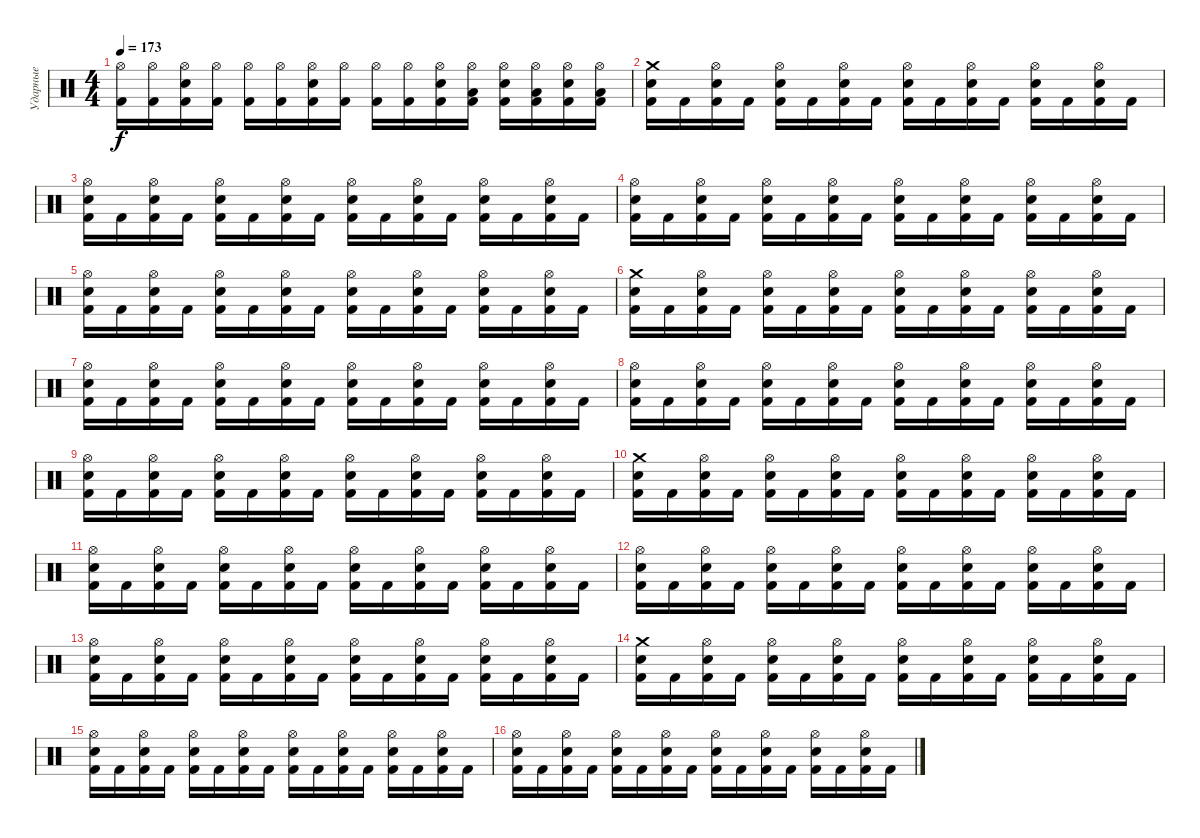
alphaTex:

\track ("Ударные" "Ударные") {instrument percussion}
\staff {score}
\articulation defaults
\ts (4 4)
\tempo 173
\clef neutral
\ks c
("Hi-Hat (open)" "Kick (hit) 2").16{dy f} ("Hi-Hat (open)" "Kick (hit) 2").16 ("Hi-Hat (open)" "Electric Snare (hit)" "Kick (hit) 2").16 ("Hi-Hat (open)" "Kick (hit) 2").16 ("Hi-Hat (open)" "Kick (hit) 2").16 ("Hi-Hat (open)" "Kick (hit) 2").16 ("Hi-Hat (open)" "Electric Snare (hit)" "Kick (hit) 2").16 ("Hi-Hat (open)" "Kick (hit) 2").16 ("Hi-Hat (open)" "Kick (hit) 2").16 ("Hi-Hat (open)" "Kick (hit) 2").16 ("Hi-Hat (open)" "Electric Snare (hit)" "Kick (hit) 2").16 ("Hi-Hat (open)" "Low Tom (hit)" "Kick (hit) 2").16 ("Hi-Hat (open)" "Electric Snare (hit)" "Kick (hit) 2").16 ("Hi-Hat (open)" "Low Tom (hit)" "Kick (hit) 2").16 ("Hi-Hat (open)" "Electric Snare (hit)" "Kick (hit) 2").16 ("Hi-Hat (open)" "Low Tom (hit)" "Kick (hit) 2").16 |
("Crash medium (hit)" "Electric Snare (hit)" "Kick (hit) 2").16 "Kick (hit) 2".16 ("Hi-Hat (open)" "Electric Snare (hit)" "Kick (hit) 2").16 "Kick (hit) 2".16 ("Hi-Hat (open)" "Electric Snare (hit)" "Kick (hit) 2").16 "Kick (hit) 2".16 ("Hi-Hat (open)" "Electric Snare (hit)" "Kick (hit) 2").16 "Kick (hit) 2".16 ("Hi-Hat (open)" "Electric Snare (hit)" "Kick (hit) 2").16 "Kick (hit) 2".16 ("Hi-Hat (open)" "Electric Snare (hit)" "Kick (hit) 2").16 "Kick (hit) 2".16 ("Hi-Hat (open)" "Electric Snare (hit)" "Kick (hit) 2").16 "Kick (hit) 2".16 ("Hi-Hat (open)" "Electric Snare (hit)" "Kick (hit) 2").16 "Kick (hit) 2".16 |
("Hi-Hat (open)" "Electric Snare (hit)" "Kick (hit) 2").16 "Kick (hit) 2".16 ("Hi-Hat (open)" "Electric Snare (hit)" "Kick (hit) 2").16 "Kick (hit) 2".16 ("Hi-Hat (open)" "Electric Snare (hit)" "Kick (hit) 2").16 "Kick (hit) 2".16 ("Hi-Hat (open)" "Electric Snare (hit)" "Kick (hit) 2").16 "Kick (hit) 2".16 ("Hi-Hat (open)" "Electric Snare (hit)" "Kick (hit) 2").16 "Kick (hit) 2".16 ("Hi-Hat (open)" "Electric Snare (hit)" "Kick (hit) 2").16 "Kick (hit) 2".16 ("Hi-Hat (open)" "Electric Snare (hit)" "Kick (hit) 2").16 "Kick (hit) 2".16 ("Hi-Hat (open)" "Electric Snare (hit)" "Kick (hit) 2").16 "Kick (hit) 2".16 |
("Hi-Hat (open)" "Electric Snare (hit)" "Kick (hit) 2").16 "Kick (hit) 2".16 ("Hi-Hat (open)" "Electric Snare (hit)" "Kick (hit) 2").16 "Kick (hit) 2".16 ("Hi-Hat (open)" "Electric Snare (hit)" "Kick (hit) 2").16 "Kick (hit) 2".16 ("Hi-Hat (open)" "Electric Snare (hit)" "Kick (hit) 2").16 "Kick (hit) 2".16 ("Hi-Hat (open)" "Electric Snare (hit)" "Kick (hit) 2").16 "Kick (hit) 2".16 ("Hi-Hat (open)" "Electric Snare (hit)" "Kick (hit) 2").16 "Kick (hit) 2".16 ("Hi-Hat (open)" "Electric Snare (hit)" "Kick (hit) 2").16 "Kick (hit) 2".16 ("Hi-Hat (open)" "Electric Snare (hit)" "Kick (hit) 2").16 "Kick (hit) 2".16 |
("Hi-Hat (open)" "Electric Snare (hit)" "Kick (hit) 2").16 "Kick (hit) 2".16 ("Hi-Hat (open)" "Electric Snare (hit)" "Kick (hit) 2").16 "Kick (hit) 2".16 ("Hi-Hat (open)" "Electric Snare (hit)" "Kick (hit) 2").16 "Kick (hit) 2".16 ("Hi-Hat (open)" "Electric Snare (hit)" "Kick (hit) 2").16 "Kick (hit) 2".16 ("Hi-Hat (open)" "Electric Snare (hit)" "Kick (hit) 2").16 "Kick (hit) 2".16 ("Hi-Hat (open)" "Electric Snare (hit)" "Kick (hit) 2").16 "Kick (hit) 2".16 ("Hi-Hat (open)" "Electric Snare (hit)" "Kick (hit) 2").16 "Kick (hit) 2".16 ("Hi-Hat (open)" "Electric Snare (hit)" "Kick (hit) 2").16 "Kick (hit) 2".16 |
("Crash medium (hit)" "Electric Snare (hit)" "Kick (hit) 2").16 "Kick (hit) 2".16 ("Hi-Hat (open)" "Electric Snare (hit)" "Kick (hit) 2").16 "Kick (hit) 2".16 ("Hi-Hat (open)" "Electric Snare (hit)" "Kick (hit) 2").16 "Kick (hit) 2".16 ("Hi-Hat (open)" "Electric Snare (hit)" "Kick (hit) 2").16 "Kick (hit) 2".16 ("Hi-Hat (open)" "Electric Snare (hit)" "Kick (hit) 2").16 "Kick (hit) 2".16 ("Hi-Hat (open)" "Electric Snare (hit)" "Kick (hit) 2").16 "Kick (hit) 2".16 ("Hi-Hat (open)" "Electric Snare (hit)" "Kick (hit) 2").16 "Kick (hit) 2".16 ("Hi-Hat (open)" "Electric Snare (hit)" "Kick (hit) 2").16 "Kick (hit) 2".16 |
("Hi-Hat (open)" "Electric Snare (hit)" "Kick (hit) 2").16 "Kick (hit) 2".16 ("Hi-Hat (open)" "Electric Snare (hit)" "Kick (hit) 2").16 "Kick (hit) 2".16 ("Hi-Hat (open)" "Electric Snare (hit)" "Kick (hit) 2").16 "Kick (hit) 2".16 ("Hi-Hat (open)" "Electric Snare (hit)" "Kick (hit) 2").16 "Kick (hit) 2".16 ("Hi-Hat (open)" "Electric Snare (hit)" "Kick (hit) 2").16 "Kick (hit) 2".16 ("Hi-Hat (open)" "Electric Snare (hit)" "Kick (hit) 2").16 "Kick (hit) 2".16 ("Hi-Hat (open)" "Electric Snare (hit)" "Kick (hit) 2").16 "Kick (hit) 2".16 ("Hi-Hat (open)" "Electric Snare (hit)" "Kick (hit) 2").16 "Kick (hit) 2".16 |
("Hi-Hat (open)" "Electric Snare (hit)" "Kick (hit) 2").16 "Kick (hit) 2".16 ("Hi-Hat (open)" "Electric Snare (hit)" "Kick (hit) 2").16 "Kick (hit) 2".16 ("Hi-Hat (open)" "Electric Snare (hit)" "Kick (hit) 2").16 "Kick (hit) 2".16 ("Hi-Hat (open)" "Electric Snare (hit)" "Kick (hit) 2").16 "Kick (hit) 2".16 ("Hi-Hat (open)" "Electric Snare (hit)" "Kick (hit) 2").16 "Kick (hit) 2".16 ("Hi-Hat (open)" "Electric Snare (hit)" "Kick (hit) 2").16 "Kick (hit) 2".16 ("Hi-Hat (open)" "Electric Snare (hit)" "Kick (hit) 2").16 "Kick (hit) 2".16 ("Hi-Hat (open)" "Electric Snare (hit)" "Kick (hit) 2").16 "Kick (hit) 2".16 |
("Hi-Hat (open)" "Electric Snare (hit)" "Kick (hit) 2").16 "Kick (hit) 2".16 ("Hi-Hat (open)" "Electric Snare (hit)" "Kick (hit) 2").16 "Kick (hit) 2".16 ("Hi-Hat (open)" "Electric Snare (hit)" "Kick (hit) 2").16 "Kick (hit) 2".16 ("Hi-Hat (open)" "Electric Snare (hit)" "Kick (hit) 2").16 "Kick (hit) 2".16 ("Hi-Hat (open)" "Electric Snare (hit)" "Kick (hit) 2").16 "Kick (hit) 2".16 ("Hi-Hat (open)" "Electric Snare (hit)" "Kick (hit) 2").16 "Kick (hit) 2".16 ("Hi-Hat (open)" "Electric Snare (hit)" "Kick (hit) 2").16 "Kick (hit) 2".16 ("Hi-Hat (open)" "Electric Snare (hit)" "Kick (hit) 2").16 "Kick (hit) 2".16 |
("Crash medium (hit)" "Electric Snare (hit)" "Kick (hit) 2").16 "Kick (hit) 2".16 ("Hi-Hat (open)" "Electric Snare (hit)" "Kick (hit) 2").16 "Kick (hit) 2".16 ("Hi-Hat (open)" "Electric Snare (hit)" "Kick (hit) 2").16 "Kick (hit) 2".16 ("Hi-Hat (open)" "Electric Snare (hit)" "Kick (hit) 2").16 "Kick (hit) 2".16 ("Hi-Hat (open)" "Electric Snare (hit)" "Kick (hit) 2").16 "Kick (hit) 2".16 ("Hi-Hat (open)" "Electric Snare (hit)" "Kick (hit) 2").16 "Kick (hit) 2".16 ("Hi-Hat (open)" "Electric Snare (hit)" "Kick (hit) 2").16 "Kick (hit) 2".16 ("Hi-Hat (open)" "Electric Snare (hit)" "Kick (hit) 2").16 "Kick (hit) 2".16 |
("Hi-Hat (open)" "Electric Snare (hit)" "Kick (hit) 2").16 "Kick (hit) 2".16 ("Hi-Hat (open)" "Electric Snare (hit)" "Kick (hit) 2").16 "Kick (hit) 2".16 ("Hi-Hat (open)" "Electric Snare (hit)" "Kick (hit) 2").16 "Kick (hit) 2".16 ("Hi-Hat (open)" "Electric Snare (hit)" "Kick (hit) 2").16 "Kick (hit) 2".16 ("Hi-Hat (open)" "Electric Snare (hit)" "Kick (hit) 2").16 "Kick (hit) 2".16 ("Hi-Hat (open)" "Electric Snare (hit)" "Kick (hit) 2").16 "Kick (hit) 2".16 ("Hi-Hat (open)" "Electric Snare (hit)" "Kick (hit) 2").16 "Kick (hit) 2".16 ("Hi-Hat (open)" "Electric Snare (hit)" "Kick (hit) 2").16 "Kick (hit) 2".16 |
("Hi-Hat (open)" "Electric Snare (hit)" "Kick (hit) 2").16 "Kick (hit) 2".16 ("Hi-Hat (open)" "Electric Snare (hit)" "Kick (hit) 2").16 "Kick (hit) 2".16 ("Hi-Hat (open)" "Electric Snare (hit)" "Kick (hit) 2").16 "Kick (hit) 2".16 ("Hi-Hat (open)" "Electric Snare (hit)" "Kick (hit) 2").16 "Kick (hit) 2".16 ("Hi-Hat (open)" "Electric Snare (hit)" "Kick (hit) 2").16 "Kick (hit) 2".16 ("Hi-Hat (open)" "Electric Snare (hit)" "Kick (hit) 2").16 "Kick (hit) 2".16 ("Hi-Hat (open)" "Electric Snare (hit)" "Kick (hit) 2").16 "Kick (hit) 2".16 ("Hi-Hat (open)" "Electric Snare (hit)" "Kick (hit) 2").16 "Kick (hit) 2".16 |
("Hi-Hat (open)" "Electric Snare (hit)" "Kick (hit) 2").16 "Kick (hit) 2".16 ("Hi-Hat (open)" "Electric Snare (hit)" "Kick (hit) 2").16 "Kick (hit) 2".16 ("Hi-Hat (open)" "Electric Snare (hit)" "Kick (hit) 2").16 "Kick (hit) 2".16 ("Hi-Hat (open)" "Electric Snare (hit)" "Kick (hit) 2").16 "Kick (hit) 2".16 ("Hi-Hat (open)" "Electric Snare (hit)" "Kick (hit) 2").16 "Kick (hit) 2".16 ("Hi-Hat (open)" "Electric Snare (hit)" "Kick (hit) 2").16 "Kick (hit) 2".16 ("Hi-Hat (open)" "Electric Snare (hit)" "Kick (hit) 2").16 "Kick (hit) 2".16 ("Hi-Hat (open)" "Electric Snare (hit)" "Kick (hit) 2").16 "Kick (hit) 2".16 |
("Crash medium (hit)" "Electric Snare (hit)" "Kick (hit) 2").16 "Kick (hit) 2".16 ("Hi-Hat (open)" "Electric Snare (hit)" "Kick (hit) 2").16 "Kick (hit) 2".16 ("Hi-Hat (open)" "Electric Snare (hit)" "Kick (hit) 2").16 "Kick (hit) 2".16 ("Hi-Hat (open)" "Electric Snare (hit)" "Kick (hit) 2").16 "Kick (hit) 2".16 ("Hi-Hat (open)" "Electric Snare (hit)" "Kick (hit) 2").16 "Kick (hit) 2".16 ("Hi-Hat (open)" "Electric Snare (hit)" "Kick (hit) 2").16 "Kick (hit) 2".16 ("Hi-Hat (open)" "Electric Snare (hit)" "Kick (hit) 2").16 "Kick (hit) 2".16 ("Hi-Hat (open)" "Electric Snare (hit)" "Kick (hit) 2").16 "Kick (hit) 2".16 |
("Hi-Hat (open)" "Electric Snare (hit)" "Kick (hit) 2").16 "Kick (hit) 2".16 ("Hi-Hat (open)" "Electric Snare (hit)" "Kick (hit) 2").16 "Kick (hit) 2".16 ("Hi-Hat (open)" "Electric Snare (hit)" "Kick (hit) 2").16 "Kick (hit) 2".16 ("Hi-Hat (open)" "Electric Snare (hit)" "Kick (hit) 2").16 "Kick (hit) 2".16 ("Hi-Hat (open)" "Electric Snare (hit)" "Kick (hit) 2").16 "Kick (hit) 2".16 ("Hi-Hat (open)" "Electric Snare (hit)" "Kick (hit) 2").16 "Kick (hit) 2".16 ("Hi-Hat (open)" "Electric Snare (hit)" "Kick (hit) 2").16 "Kick (hit) 2".16 ("Hi-Hat (open)" "Electric Snare (hit)" "Kick (hit) 2").16 "Kick (hit) 2".16 |
("Hi-Hat (open)" "Electric Snare (hit)" "Kick (hit) 2").16 "Kick (hit) 2".16 ("Hi-Hat (open)" "Electric Snare (hit)" "Kick (hit) 2").16 "Kick (hit) 2".16 ("Hi-Hat (open)" "Electric Snare (hit)" "Kick (hit) 2").16 "Kick (hit) 2".16 ("Hi-Hat (open)" "Electric Snare (hit)" "Kick (hit) 2").16 "Kick (hit) 2".16 ("Hi-Hat (open)" "Electric Snare (hit)" "Kick (hit) 2").16 "Kick (hit) 2".16 ("Hi-Hat (open)" "Electric Snare (hit)" "Kick (hit) 2").16 "Kick (hit) 2".16 ("Hi-Hat (open)" "Electric Snare (hit)" "Kick (hit) 2").16 "Kick (hit) 2".16 ("Hi-Hat (open)" "Electric Snare (hit)" "Kick (hit) 2").16 "Kick (hit) 2".16
